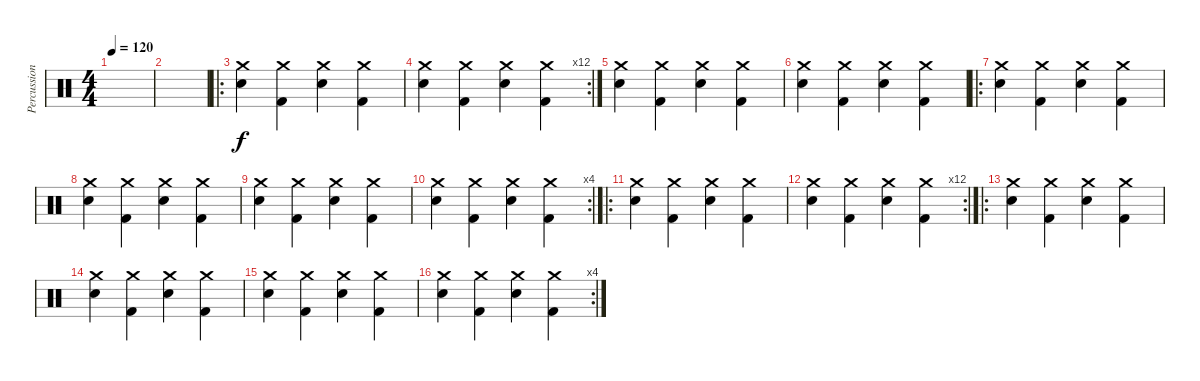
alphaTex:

\track ("Percussion" "Percussion") {instrument percussion}
\staff {score}
\articulation defaults
\ts (4 4)
\tempo 120
\clef neutral
\ks c
|
|
\ro
("Crash medium (hit)" "Snare (hit) 2").4 ("Crash medium (hit)" "Kick (hit) 2").4 ("Crash medium (hit)" "Snare (hit) 2").4 ("Crash medium (hit)" "Kick (hit) 2").4 |
\rc 12
("Crash medium (hit)" "Snare (hit) 2").4 ("Crash medium (hit)" "Kick (hit) 2").4 ("Crash medium (hit)" "Snare (hit) 2").4 ("Crash medium (hit)" "Kick (hit) 2").4 |
("Crash medium (hit)" "Snare (hit) 2").4 ("Crash medium (hit)" "Kick (hit) 2").4 ("Crash medium (hit)" "Snare (hit) 2").4 ("Crash medium (hit)" "Kick (hit) 2").4 |
("Crash medium (hit)" "Snare (hit) 2").4 ("Crash medium (hit)" "Kick (hit) 2").4 ("Crash medium (hit)" "Snare (hit) 2").4 ("Crash medium (hit)" "Kick (hit) 2").4 |
\ro
("Crash medium (hit)" "Snare (hit) 2").4 ("Crash medium (hit)" "Kick (hit) 2").4 ("Crash medium (hit)" "Snare (hit) 2").4 ("Crash medium (hit)" "Kick (hit) 2").4 |
("Crash medium (hit)" "Snare (hit) 2").4 ("Crash medium (hit)" "Kick (hit) 2").4 ("Crash medium (hit)" "Snare (hit) 2").4 ("Crash medium (hit)" "Kick (hit) 2").4 |
("Crash medium (hit)" "Snare (hit) 2").4 ("Crash medium (hit)" "Kick (hit) 2").4 ("Crash medium (hit)" "Snare (hit) 2").4 ("Crash medium (hit)" "Kick (hit) 2").4 |
\rc 4
("Crash medium (hit)" "Snare (hit) 2").4 ("Crash medium (hit)" "Kick (hit) 2").4 ("Crash medium (hit)" "Snare (hit) 2").4 ("Crash medium (hit)" "Kick (hit) 2").4 |
\ro
("Crash medium (hit)" "Snare (hit) 2").4 ("Crash medium (hit)" "Kick (hit) 2").4 ("Crash medium (hit)" "Snare (hit) 2").4 ("Crash medium (hit)" "Kick (hit) 2").4 |
\rc 12
("Crash medium (hit)" "Snare (hit) 2").4 ("Crash medium (hit)" "Kick (hit) 2").4 ("Crash medium (hit)" "Snare (hit) 2").4 ("Crash medium (hit)" "Kick (hit) 2").4 |
\ro
("Crash medium (hit)" "Snare (hit) 2").4 ("Crash medium (hit)" "Kick (hit) 2").4 ("Crash medium (hit)" "Snare (hit) 2").4 ("Crash medium (hit)" "Kick (hit) 2").4 |
("Crash medium (hit)" "Snare (hit) 2").4 ("Crash medium (hit)" "Kick (hit) 2").4 ("Crash medium (hit)" "Snare (hit) 2").4 ("Crash medium (hit)" "Kick (hit) 2").4 |
("Crash medium (hit)" "Snare (hit) 2").4 ("Crash medium (hit)" "Kick (hit) 2").4 ("Crash medium (hit)" "Snare (hit) 2").4 ("Crash medium (hit)" "Kick (hit) 2").4 |
\rc 4
("Crash medium (hit)" "Snare (hit) 2").4 ("Crash medium (hit)" "Kick (hit) 2").4 ("Crash medium (hit)" "Snare (hit) 2").4 ("Crash medium (hit)" "Kick (hit) 2").4
